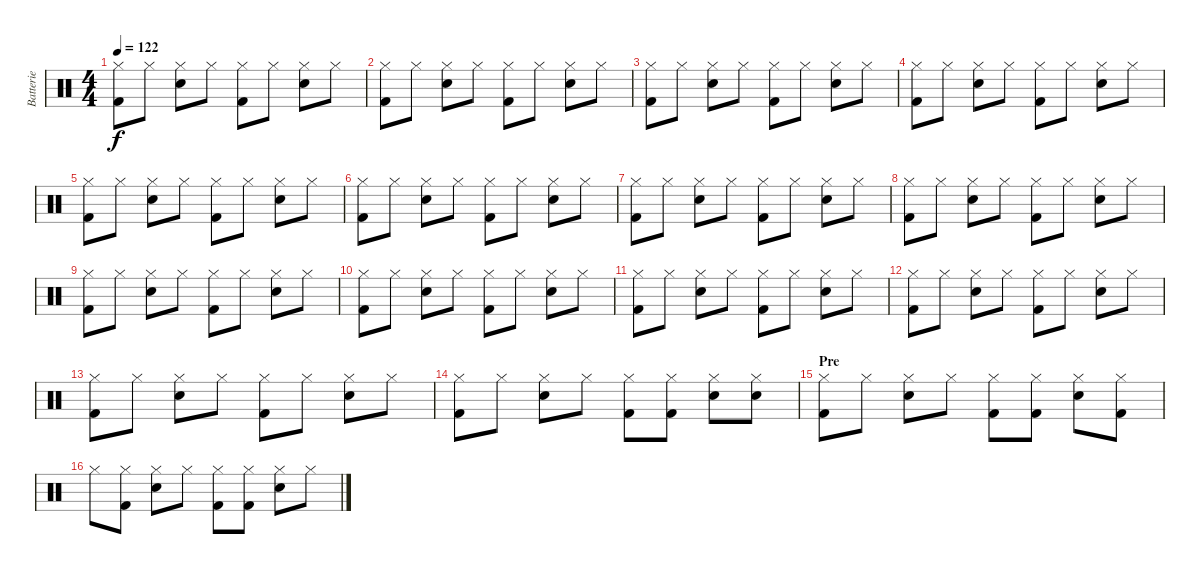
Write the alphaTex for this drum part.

\track ("Batterie" "Batterie") {instrument percussion}
\staff {score}
\articulation defaults
\ts (4 4)
\tempo 122
\clef neutral
\ks c
("Hi-Hat (closed)" "Kick (hit) 2").8{dy f} "Hi-Hat (closed)".8 ("Hi-Hat (closed)" "Snare (hit) 2").8 "Hi-Hat (closed)".8 ("Hi-Hat (closed)" "Kick (hit) 2").8 "Hi-Hat (closed)".8 ("Hi-Hat (closed)" "Snare (hit) 2").8 "Hi-Hat (closed)".8 |
("Hi-Hat (closed)" "Kick (hit) 2").8 "Hi-Hat (closed)".8 ("Hi-Hat (closed)" "Snare (hit) 2").8 "Hi-Hat (closed)".8 ("Hi-Hat (closed)" "Kick (hit) 2").8 "Hi-Hat (closed)".8 ("Hi-Hat (closed)" "Snare (hit) 2").8 "Hi-Hat (closed)".8 |
("Hi-Hat (closed)" "Kick (hit) 2").8 "Hi-Hat (closed)".8 ("Hi-Hat (closed)" "Snare (hit) 2").8 "Hi-Hat (closed)".8 ("Hi-Hat (closed)" "Kick (hit) 2").8 "Hi-Hat (closed)".8 ("Hi-Hat (closed)" "Snare (hit) 2").8 "Hi-Hat (closed)".8 |
("Hi-Hat (closed)" "Kick (hit) 2").8 "Hi-Hat (closed)".8 ("Hi-Hat (closed)" "Snare (hit) 2").8 "Hi-Hat (closed)".8 ("Hi-Hat (closed)" "Kick (hit) 2").8 "Hi-Hat (closed)".8 ("Hi-Hat (closed)" "Snare (hit) 2").8 "Hi-Hat (closed)".8 |
("Hi-Hat (closed)" "Kick (hit) 2").8 "Hi-Hat (closed)".8 ("Hi-Hat (closed)" "Snare (hit) 2").8 "Hi-Hat (closed)".8 ("Hi-Hat (closed)" "Kick (hit) 2").8 "Hi-Hat (closed)".8 ("Hi-Hat (closed)" "Snare (hit) 2").8 "Hi-Hat (closed)".8 |
("Hi-Hat (closed)" "Kick (hit) 2").8 "Hi-Hat (closed)".8 ("Hi-Hat (closed)" "Snare (hit) 2").8 "Hi-Hat (closed)".8 ("Hi-Hat (closed)" "Kick (hit) 2").8 "Hi-Hat (closed)".8 ("Hi-Hat (closed)" "Snare (hit) 2").8 "Hi-Hat (closed)".8 |
("Hi-Hat (closed)" "Kick (hit) 2").8 "Hi-Hat (closed)".8 ("Hi-Hat (closed)" "Snare (hit) 2").8 "Hi-Hat (closed)".8 ("Hi-Hat (closed)" "Kick (hit) 2").8 "Hi-Hat (closed)".8 ("Hi-Hat (closed)" "Snare (hit) 2").8 "Hi-Hat (closed)".8 |
("Hi-Hat (closed)" "Kick (hit) 2").8 "Hi-Hat (closed)".8 ("Hi-Hat (closed)" "Snare (hit) 2").8 "Hi-Hat (closed)".8 ("Hi-Hat (closed)" "Kick (hit) 2").8 "Hi-Hat (closed)".8 ("Hi-Hat (closed)" "Snare (hit) 2").8 "Hi-Hat (closed)".8 |
("Hi-Hat (closed)" "Kick (hit) 2").8 "Hi-Hat (closed)".8 ("Hi-Hat (closed)" "Snare (hit) 2").8 "Hi-Hat (closed)".8 ("Hi-Hat (closed)" "Kick (hit) 2").8 "Hi-Hat (closed)".8 ("Hi-Hat (closed)" "Snare (hit) 2").8 "Hi-Hat (closed)".8 |
("Hi-Hat (closed)" "Kick (hit) 2").8 "Hi-Hat (closed)".8 ("Hi-Hat (closed)" "Snare (hit) 2").8 "Hi-Hat (closed)".8 ("Hi-Hat (closed)" "Kick (hit) 2").8 "Hi-Hat (closed)".8 ("Hi-Hat (closed)" "Snare (hit) 2").8 "Hi-Hat (closed)".8 |
("Hi-Hat (closed)" "Kick (hit) 2").8 "Hi-Hat (closed)".8 ("Hi-Hat (closed)" "Snare (hit) 2").8 "Hi-Hat (closed)".8 ("Hi-Hat (closed)" "Kick (hit) 2").8 "Hi-Hat (closed)".8 ("Hi-Hat (closed)" "Snare (hit) 2").8 "Hi-Hat (closed)".8 |
("Hi-Hat (closed)" "Kick (hit) 2").8 "Hi-Hat (closed)".8 ("Hi-Hat (closed)" "Snare (hit) 2").8 "Hi-Hat (closed)".8 ("Hi-Hat (closed)" "Kick (hit) 2").8 "Hi-Hat (closed)".8 ("Hi-Hat (closed)" "Snare (hit) 2").8 "Hi-Hat (closed)".8 |
("Hi-Hat (closed)" "Kick (hit) 2").8 "Hi-Hat (closed)".8 ("Hi-Hat (closed)" "Snare (hit) 2").8 "Hi-Hat (closed)".8 ("Hi-Hat (closed)" "Kick (hit) 2").8 "Hi-Hat (closed)".8 ("Hi-Hat (closed)" "Snare (hit) 2").8 "Hi-Hat (closed)".8 |
("Hi-Hat (closed)" "Kick (hit) 2").8 "Hi-Hat (closed)".8 ("Hi-Hat (closed)" "Snare (hit) 2").8 "Hi-Hat (closed)".8 ("Hi-Hat (closed)" "Kick (hit) 2").8 ("Hi-Hat (closed)" "Kick (hit) 2").8 ("Hi-Hat (closed)" "Snare (hit) 2").8 ("Hi-Hat (closed)" "Snare (hit) 2").8 |
\section ("" "Pre")
("Hi-Hat (closed)" "Kick (hit) 2").8 "Hi-Hat (closed)".8 ("Hi-Hat (closed)" "Snare (hit) 2").8 "Hi-Hat (closed)".8 ("Hi-Hat (closed)" "Kick (hit) 2").8 ("Hi-Hat (closed)" "Kick (hit) 2").8 ("Hi-Hat (closed)" "Snare (hit) 2").8 ("Hi-Hat (closed)" "Kick (hit) 2").8 |
"Hi-Hat (closed)".8 ("Hi-Hat (closed)" "Kick (hit) 2").8 ("Hi-Hat (closed)" "Snare (hit) 2").8 "Hi-Hat (closed)".8 ("Hi-Hat (closed)" "Kick (hit) 2").8 ("Hi-Hat (closed)" "Kick (hit) 2").8 ("Hi-Hat (closed)" "Snare (hit) 2").8 "Hi-Hat (closed)".8
